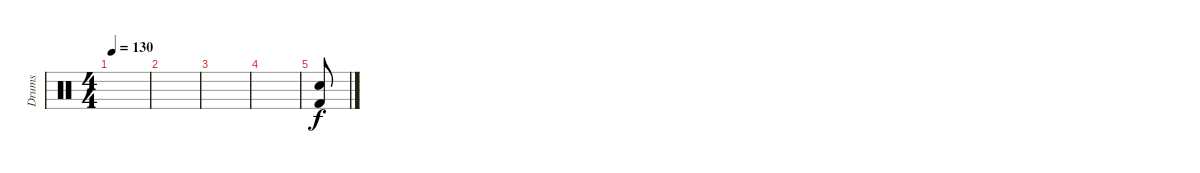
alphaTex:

\track ("Drums" "Drums") {instrument percussion}
\staff {score}
\articulation defaults
\ts (4 4)
\tempo 130
\clef neutral
\ks c
|
|
|
|
("Snare (hit) 2" "Kick (hit) 2").8
